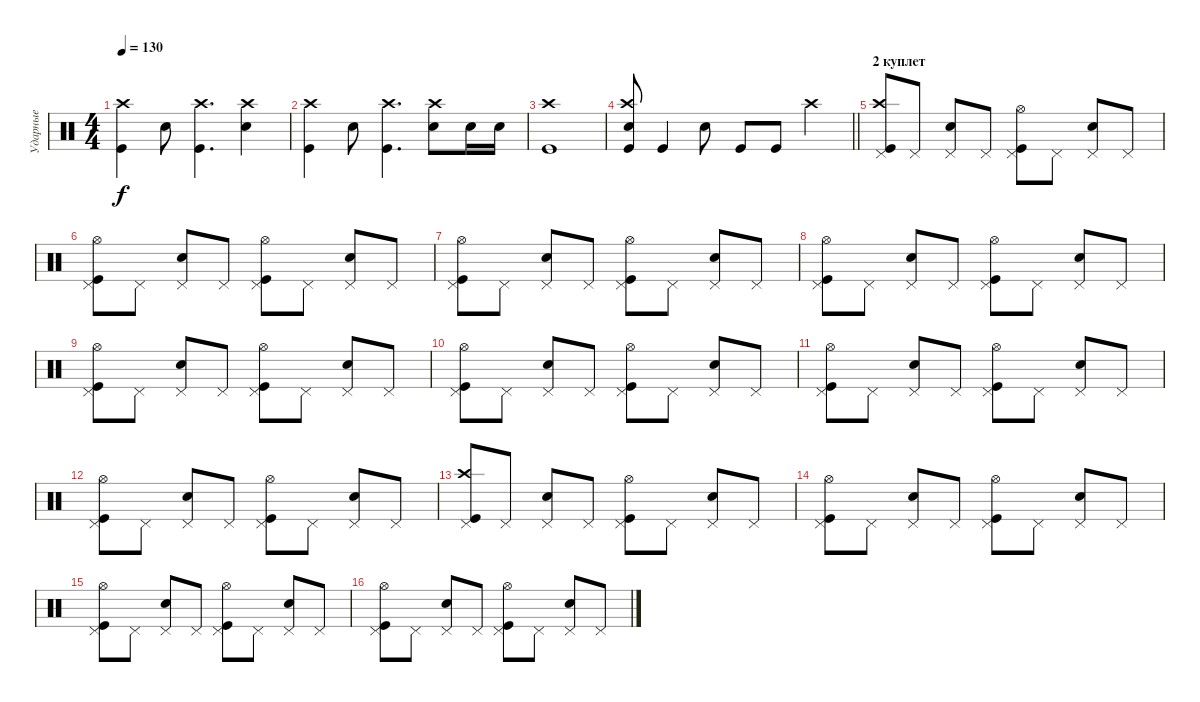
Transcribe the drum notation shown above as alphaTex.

\track ("Ударные" "Ударные") {instrument percussion}
\staff {score}
\articulation defaults
\ts (4 4)
\tempo 130
\clef neutral
\ks c
("Kick (hit)" "Crash high (hit)").4{dy f} "Snare (hit) 2".8 ("Kick (hit)" "Crash high (hit)").4{d} ("Snare (hit) 2" "Crash high (hit)").4 |
("Kick (hit)" "Crash high (hit)").4 "Snare (hit) 2".8 ("Kick (hit)" "Crash high (hit)").4{d} ("Snare (hit) 2" "Crash high (hit)").8 "Snare (hit) 2".16 "Snare (hit) 2".16 |
("Kick (hit)" "Crash high (hit)").1 |
\barLineRight lightlight
("Kick (hit)" "Snare (hit) 2" "Crash high (hit)").8 "Kick (hit)".4 "Snare (hit) 2".8 "Kick (hit)".8 "Kick (hit)".8 "Crash high (hit)".4 |
\section ("" "2 куплет")
("Pedal Hi-Hat (hit)" "Crash high (hit)" "Kick (hit)").8 "Pedal Hi-Hat (hit)".8 ("Pedal Hi-Hat (hit)" "Snare (hit) 2").8 "Pedal Hi-Hat (hit)".8 ("Pedal Hi-Hat (hit)" "Hi-Hat (open)" "Kick (hit)").8 "Pedal Hi-Hat (hit)".8 ("Pedal Hi-Hat (hit)" "Snare (hit) 2").8 "Pedal Hi-Hat (hit)".8 |
("Pedal Hi-Hat (hit)" "Hi-Hat (open)" "Kick (hit)").8 "Pedal Hi-Hat (hit)".8 ("Pedal Hi-Hat (hit)" "Snare (hit) 2").8 "Pedal Hi-Hat (hit)".8 ("Pedal Hi-Hat (hit)" "Hi-Hat (open)" "Kick (hit)").8 "Pedal Hi-Hat (hit)".8 ("Pedal Hi-Hat (hit)" "Snare (hit) 2").8 "Pedal Hi-Hat (hit)".8 |
("Pedal Hi-Hat (hit)" "Hi-Hat (open)" "Kick (hit)").8 "Pedal Hi-Hat (hit)".8 ("Pedal Hi-Hat (hit)" "Snare (hit) 2").8 "Pedal Hi-Hat (hit)".8 ("Pedal Hi-Hat (hit)" "Hi-Hat (open)" "Kick (hit)").8 "Pedal Hi-Hat (hit)".8 ("Pedal Hi-Hat (hit)" "Snare (hit) 2").8 "Pedal Hi-Hat (hit)".8 |
("Pedal Hi-Hat (hit)" "Hi-Hat (open)" "Kick (hit)").8 "Pedal Hi-Hat (hit)".8 ("Pedal Hi-Hat (hit)" "Snare (hit) 2").8 "Pedal Hi-Hat (hit)".8 ("Pedal Hi-Hat (hit)" "Hi-Hat (open)" "Kick (hit)").8 "Pedal Hi-Hat (hit)".8 ("Pedal Hi-Hat (hit)" "Snare (hit) 2").8 "Pedal Hi-Hat (hit)".8 |
("Pedal Hi-Hat (hit)" "Hi-Hat (open)" "Kick (hit)").8 "Pedal Hi-Hat (hit)".8 ("Pedal Hi-Hat (hit)" "Snare (hit) 2").8 "Pedal Hi-Hat (hit)".8 ("Pedal Hi-Hat (hit)" "Hi-Hat (open)" "Kick (hit)").8 "Pedal Hi-Hat (hit)".8 ("Pedal Hi-Hat (hit)" "Snare (hit) 2").8 "Pedal Hi-Hat (hit)".8 |
("Pedal Hi-Hat (hit)" "Hi-Hat (open)" "Kick (hit)").8 "Pedal Hi-Hat (hit)".8 ("Pedal Hi-Hat (hit)" "Snare (hit) 2").8 "Pedal Hi-Hat (hit)".8 ("Pedal Hi-Hat (hit)" "Hi-Hat (open)" "Kick (hit)").8 "Pedal Hi-Hat (hit)".8 ("Pedal Hi-Hat (hit)" "Snare (hit) 2").8 "Pedal Hi-Hat (hit)".8 |
("Pedal Hi-Hat (hit)" "Hi-Hat (open)" "Kick (hit)").8 "Pedal Hi-Hat (hit)".8 ("Pedal Hi-Hat (hit)" "Snare (hit) 2").8 "Pedal Hi-Hat (hit)".8 ("Pedal Hi-Hat (hit)" "Hi-Hat (open)" "Kick (hit)").8 "Pedal Hi-Hat (hit)".8 ("Pedal Hi-Hat (hit)" "Snare (hit) 2").8 "Pedal Hi-Hat (hit)".8 |
("Pedal Hi-Hat (hit)" "Hi-Hat (open)" "Kick (hit)").8 "Pedal Hi-Hat (hit)".8 ("Pedal Hi-Hat (hit)" "Snare (hit) 2").8 "Pedal Hi-Hat (hit)".8 ("Pedal Hi-Hat (hit)" "Hi-Hat (open)" "Kick (hit)").8 "Pedal Hi-Hat (hit)".8 ("Pedal Hi-Hat (hit)" "Snare (hit) 2").8 "Pedal Hi-Hat (hit)".8 |
("Pedal Hi-Hat (hit)" "Crash high (hit)" "Kick (hit)").8 "Pedal Hi-Hat (hit)".8 ("Pedal Hi-Hat (hit)" "Snare (hit) 2").8 "Pedal Hi-Hat (hit)".8 ("Pedal Hi-Hat (hit)" "Hi-Hat (open)" "Kick (hit)").8 "Pedal Hi-Hat (hit)".8 ("Pedal Hi-Hat (hit)" "Snare (hit) 2").8 "Pedal Hi-Hat (hit)".8 |
("Pedal Hi-Hat (hit)" "Hi-Hat (open)" "Kick (hit)").8 "Pedal Hi-Hat (hit)".8 ("Pedal Hi-Hat (hit)" "Snare (hit) 2").8 "Pedal Hi-Hat (hit)".8 ("Pedal Hi-Hat (hit)" "Hi-Hat (open)" "Kick (hit)").8 "Pedal Hi-Hat (hit)".8 ("Pedal Hi-Hat (hit)" "Snare (hit) 2").8 "Pedal Hi-Hat (hit)".8 |
("Pedal Hi-Hat (hit)" "Hi-Hat (open)" "Kick (hit)").8 "Pedal Hi-Hat (hit)".8 ("Pedal Hi-Hat (hit)" "Snare (hit) 2").8 "Pedal Hi-Hat (hit)".8 ("Pedal Hi-Hat (hit)" "Hi-Hat (open)" "Kick (hit)").8 "Pedal Hi-Hat (hit)".8 ("Pedal Hi-Hat (hit)" "Snare (hit) 2").8 "Pedal Hi-Hat (hit)".8 |
("Pedal Hi-Hat (hit)" "Hi-Hat (open)" "Kick (hit)").8 "Pedal Hi-Hat (hit)".8 ("Pedal Hi-Hat (hit)" "Snare (hit) 2").8 "Pedal Hi-Hat (hit)".8 ("Pedal Hi-Hat (hit)" "Hi-Hat (open)" "Kick (hit)").8 "Pedal Hi-Hat (hit)".8 ("Pedal Hi-Hat (hit)" "Snare (hit) 2").8 "Pedal Hi-Hat (hit)".8
